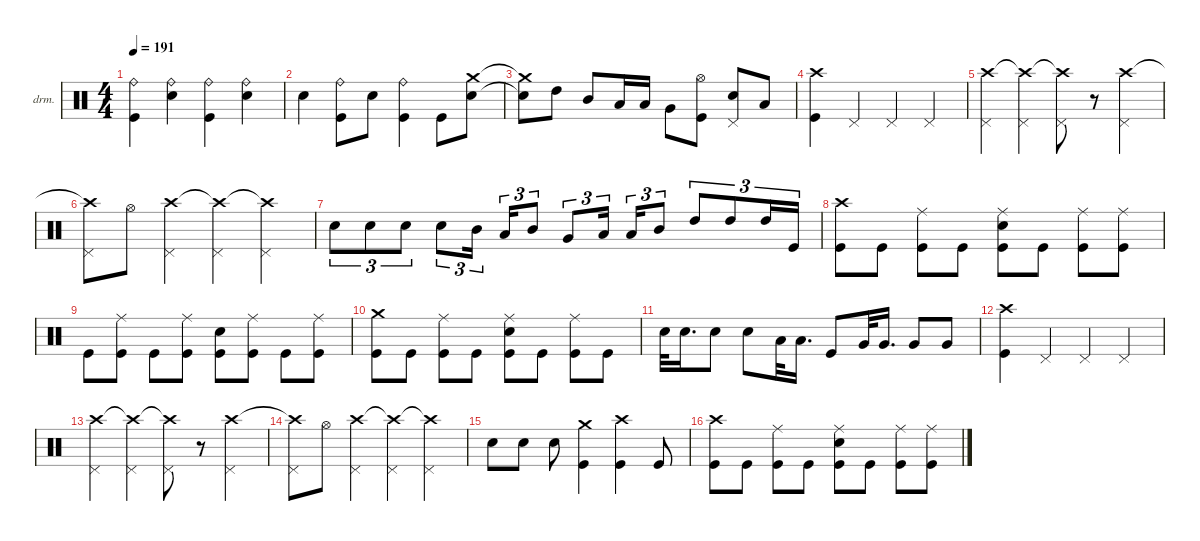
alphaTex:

\defaultSystemsLayout 4
\hideDynamics
\bracketExtendMode nobrackets
\firstSystemTrackNameOrientation horizontal
\otherSystemsTrackNameOrientation horizontal
\track ("Drumkit" "drm.") {instrument percussion}
\staff {score}
\articulation defaults
\ts (4 4)
\tempo 191
\clef neutral
\ks c
("Kick (hit)" "Ride (bell)").4{dy f beam Down} ("Snare (hit) 2" "Ride (bell)").4{beam Down} ("Kick (hit)" "Ride (bell)").4{beam Down} ("Snare (hit) 2" "Ride (bell)").4{beam Down} |
"Snare (hit) 2".4{beam Down} ("Kick (hit)" "Ride (bell)").8{beam Down} "Snare (hit) 2".8{beam Down} ("Kick (hit)" "Ride (bell)").4{beam Down} "Kick (hit)".8{beam Down} ("Snare (hit) 2" "Crash medium (hit)").8{beam Down} |
("Snare (hit) 2"{t} "Crash medium (hit)"{t}).8{beam Down} "High Tom (hit)".8{beam Down} "Mid Tom (hit)".8{beam Up} "Low Tom (hit)".16{beam Up} "Low Tom (hit)".16{beam Up} "Very Low Tom (hit)".8{beam Down} ("Kick (hit)" "Hi-Hat (open)").8{beam Down} ("Snare (hit) 2" "Pedal Hi-Hat (hit)").8{beam Up} "Low Floor Tom (hit)".8{beam Up} |
("Crash high (hit)" "Kick (hit)").4{beam Down} "Pedal Hi-Hat (hit)".4{beam Up} "Pedal Hi-Hat (hit)".4{beam Up} "Pedal Hi-Hat (hit)".4{beam Up} |
("Pedal Hi-Hat (hit)" "Crash high (hit)").4{beam Down} ("Pedal Hi-Hat (hit)" "Crash high (hit)"{t}).4{beam Down} ("Pedal Hi-Hat (hit)" "Crash high (hit)"{t}).8{beam Down} r.8{beam Down} ("Pedal Hi-Hat (hit)" "Crash high (hit)").4{beam Down} |
("Pedal Hi-Hat (hit)" "Crash high (hit)"{t}).8{beam Down} "Hi-Hat (open)".8{beam Down} ("Pedal Hi-Hat (hit)" "Crash high (hit)").4{beam Down} ("Pedal Hi-Hat (hit)" "Crash high (hit)"{t}).4{beam Down} ("Pedal Hi-Hat (hit)" "Crash high (hit)"{t}).4{beam Down} |
"Snare (hit) 2".8{tu (3 2) beam Down} "Snare (hit) 2".8{tu (3 2) beam Down} "Snare (hit) 2".8{tu (3 2) beam Down} "Snare (hit) 2".8{tu (3 2) beam Down} "Mid Tom (hit)".16{tu (3 2) beam Down} "Low Tom (hit)".16{tu (3 2) beam Up} "Mid Tom (hit)".8{tu (3 2) beam Up} "Very Low Tom (hit)".8{tu (3 2) beam Up} "Low Tom (hit)".16{tu (3 2) beam Up} "Low Tom (hit)".16{tu (3 2) beam Up} "Mid Tom (hit)".8{tu (3 2) beam Up} "High Tom (hit)".8{tu (3 2) beam Up} "High Tom (hit)".8{tu (3 2) beam Up} "High Tom (hit)".16{tu (3 2) beam Up} "Kick (hit)".16{tu (3 2) beam Up} |
("Crash high (hit)" "Kick (hit)").8{beam Down} "Kick (hit)".8{beam Down} ("Ride (middle)" "Kick (hit)").8{dy mf beam Down} "Kick (hit)".8{dy f beam Down} ("Ride (middle)" "Snare (hit) 2" "Kick (hit)").8{beam Down} "Kick (hit)".8{beam Down} ("Ride (middle)" "Kick (hit)").8{beam Down} ("Ride (middle)" "Kick (hit)").8{beam Down} |
"Kick (hit)".8{beam Down} ("Ride (middle)" "Kick (hit)").8{beam Down} "Kick (hit)".8{beam Down} ("Ride (middle)" "Kick (hit)").8{beam Down} ("Snare (hit) 2" "Kick (hit)").8{beam Down} ("Ride (middle)" "Kick (hit)").8{beam Down} "Kick (hit)".8{beam Down} ("Ride (middle)" "Kick (hit)").8{beam Down} |
("Crash medium (hit)" "Kick (hit)").8{beam Down} "Kick (hit)".8{beam Down} ("Ride (middle)" "Kick (hit)").8{dy mf beam Down} "Kick (hit)".8{dy f beam Down} ("Ride (middle)" "Snare (hit) 2" "Kick (hit)").8{dy mf beam Down} "Kick (hit)".8{dy f beam Down} ("Ride (middle)" "Kick (hit)").8{dy mf beam Down} "Kick (hit)".8{dy f beam Down} |
"Snare (hit) 2".32{beam Down} "Snare (hit) 2".16{d beam Down} "Snare (hit) 2".8{beam Down} "Snare (hit) 2".8{beam Down} "Low Tom (hit)".32{beam Down} "Low Tom (hit)".16{d beam Down} "Kick (hit)".8{beam Up} "Very Low Tom (hit)".32{beam Up} "Very Low Tom (hit)".16{d beam Up} "Very Low Tom (hit)".8{beam Up} "Very Low Tom (hit)".8{beam Up} |
("Crash high (hit)" "Kick (hit)").4{beam Down} "Pedal Hi-Hat (hit)".4{beam Up} "Pedal Hi-Hat (hit)".4{beam Up} "Pedal Hi-Hat (hit)".4{beam Up} |
("Pedal Hi-Hat (hit)" "Crash high (hit)").4{beam Down} ("Pedal Hi-Hat (hit)" "Crash high (hit)"{t}).4{beam Down} ("Pedal Hi-Hat (hit)" "Crash high (hit)"{t}).8{beam Down} r.8{beam Down} ("Pedal Hi-Hat (hit)" "Crash high (hit)").4{beam Down} |
("Pedal Hi-Hat (hit)" "Crash high (hit)"{t}).8{beam Down} "Hi-Hat (open)".8{beam Down} ("Pedal Hi-Hat (hit)" "Crash high (hit)").4{beam Down} ("Pedal Hi-Hat (hit)" "Crash high (hit)"{t}).4{beam Down} ("Pedal Hi-Hat (hit)" "Crash high (hit)"{t}).4{beam Down} |
"Snare (hit) 2".8{beam Down} "Snare (hit) 2".8{beam Down} "Snare (hit) 2".8{beam Down} ("Kick (hit)" "Crash medium (hit)").4{beam Down} ("Crash high (hit)" "Kick (hit)").4{dy mf beam Down} "Kick (hit)".8{dy f beam Up} |
("Crash high (hit)" "Kick (hit)").8{beam Down} "Kick (hit)".8{beam Down} ("Ride (middle)" "Kick (hit)").8{dy mf beam Down} "Kick (hit)".8{dy f beam Down} ("Ride (middle)" "Snare (hit) 2" "Kick (hit)").8{beam Down} "Kick (hit)".8{beam Down} ("Ride (middle)" "Kick (hit)").8{beam Down} ("Ride (middle)" "Kick (hit)").8{beam Down}
